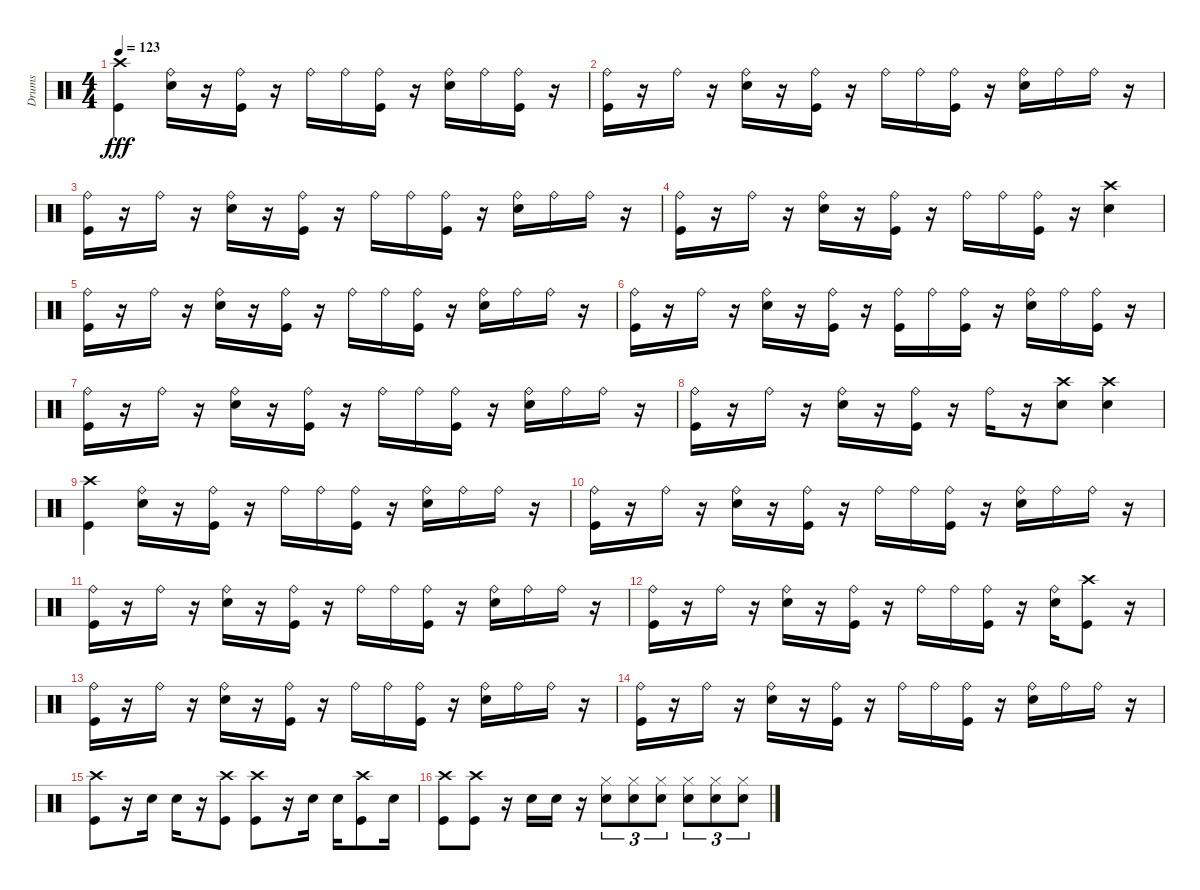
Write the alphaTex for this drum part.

\track ("Drums" "Drums") {instrument percussion}
\staff {score}
\articulation defaults
\ts (4 4)
\tempo 123
\clef neutral
\ks c
("Crash high (hit)" "Kick (hit)").4{dy fff} ("Snare (hit) 2" "Ride (bell)").16 r.16 ("Kick (hit)" "Ride (bell)").16 r.16 "Ride (bell)".16 "Ride (bell)".16 ("Kick (hit)" "Ride (bell)").16 r.16 ("Snare (hit) 2" "Ride (bell)").16 "Ride (bell)".16 ("Kick (hit)" "Ride (bell)").16 r.16 |
("Ride (bell)" "Kick (hit)").16 r.16 "Ride (bell)".16 r.16 ("Ride (bell)" "Snare (hit) 2").16 r.16 ("Ride (bell)" "Kick (hit)").16 r.16 "Ride (bell)".16 "Ride (bell)".16 ("Ride (bell)" "Kick (hit)").16 r.16 ("Ride (bell)" "Snare (hit) 2").16 "Ride (bell)".16 "Ride (bell)".16 r.16 |
("Ride (bell)" "Kick (hit)").16 r.16 "Ride (bell)".16 r.16 ("Ride (bell)" "Snare (hit) 2").16 r.16 ("Ride (bell)" "Kick (hit)").16 r.16 "Ride (bell)".16 "Ride (bell)".16 ("Ride (bell)" "Kick (hit)").16 r.16 ("Ride (bell)" "Snare (hit) 2").16 "Ride (bell)".16 "Ride (bell)".16 r.16 |
("Kick (hit)" "Ride (bell)").16 r.16 "Ride (bell)".16 r.16 ("Snare (hit) 2" "Ride (bell)").16 r.16 ("Kick (hit)" "Ride (bell)").16 r.16 "Ride (bell)".16 "Ride (bell)".16 ("Kick (hit)" "Ride (bell)").16 r.16 ("Snare (hit) 2" "Crash high (hit)").4 |
("Ride (bell)" "Kick (hit)").16 r.16 "Ride (bell)".16 r.16 ("Ride (bell)" "Snare (hit) 2").16 r.16 ("Ride (bell)" "Kick (hit)").16 r.16 "Ride (bell)".16 "Ride (bell)".16 ("Ride (bell)" "Kick (hit)").16 r.16 ("Ride (bell)" "Snare (hit) 2").16 "Ride (bell)".16 "Ride (bell)".16 r.16 |
("Kick (hit)" "Ride (bell)").16 r.16 "Ride (bell)".16 r.16 ("Snare (hit) 2" "Ride (bell)").16 r.16 ("Kick (hit)" "Ride (bell)").16 r.16 ("Kick (hit)" "Ride (bell)").16 "Ride (bell)".16 ("Kick (hit)" "Ride (bell)").16 r.16 ("Snare (hit) 2" "Ride (bell)").16 "Ride (bell)".16 ("Kick (hit)" "Ride (bell)").16 r.16 |
("Ride (bell)" "Kick (hit)").16 r.16 "Ride (bell)".16 r.16 ("Ride (bell)" "Snare (hit) 2").16 r.16 ("Ride (bell)" "Kick (hit)").16 r.16 "Ride (bell)".16 "Ride (bell)".16 ("Ride (bell)" "Kick (hit)").16 r.16 ("Ride (bell)" "Snare (hit) 2").16 "Ride (bell)".16 "Ride (bell)".16 r.16 |
("Kick (hit)" "Ride (bell)").16 r.16 "Ride (bell)".16 r.16 ("Snare (hit) 2" "Ride (bell)").16 r.16 ("Kick (hit)" "Ride (bell)").16 r.16 "Ride (bell)".16 r.16 ("Snare (hit) 2" "Crash high (hit)").8 ("Snare (hit) 2" "Crash high (hit)").4 |
("Crash high (hit)" "Kick (hit)").4 ("Ride (bell)" "Snare (hit) 2").16 r.16 ("Ride (bell)" "Kick (hit)").16 r.16 "Ride (bell)".16 "Ride (bell)".16 ("Ride (bell)" "Kick (hit)").16 r.16 ("Ride (bell)" "Snare (hit) 2").16 "Ride (bell)".16 "Ride (bell)".16 r.16 |
("Kick (hit)" "Ride (bell)").16 r.16 "Ride (bell)".16 r.16 ("Snare (hit) 2" "Ride (bell)").16 r.16 ("Kick (hit)" "Ride (bell)").16 r.16 "Ride (bell)".16 "Ride (bell)".16 ("Kick (hit)" "Ride (bell)").16 r.16 ("Snare (hit) 2" "Ride (bell)").16 "Ride (bell)".16 "Ride (bell)".16 r.16 |
("Kick (hit)" "Ride (bell)").16 r.16 "Ride (bell)".16 r.16 ("Snare (hit) 2" "Ride (bell)").16 r.16 ("Kick (hit)" "Ride (bell)").16 r.16 "Ride (bell)".16 "Ride (bell)".16 ("Kick (hit)" "Ride (bell)").16 r.16 ("Snare (hit) 2" "Ride (bell)").16 "Ride (bell)".16 "Ride (bell)".16 r.16 |
("Ride (bell)" "Kick (hit)").16 r.16 "Ride (bell)".16 r.16 ("Ride (bell)" "Snare (hit) 2").16 r.16 ("Ride (bell)" "Kick (hit)").16 r.16 "Ride (bell)".16 "Ride (bell)".16 ("Ride (bell)" "Kick (hit)").16 r.16 ("Ride (bell)" "Snare (hit) 2").16 ("Kick (hit)" "Crash high (hit)").8 r.16 |
("Kick (hit)" "Ride (bell)").16 r.16 "Ride (bell)".16 r.16 ("Snare (hit) 2" "Ride (bell)").16 r.16 ("Kick (hit)" "Ride (bell)").16 r.16 "Ride (bell)".16 "Ride (bell)".16 ("Kick (hit)" "Ride (bell)").16 r.16 ("Snare (hit) 2" "Ride (bell)").16 "Ride (bell)".16 "Ride (bell)".16 r.16 |
("Kick (hit)" "Ride (bell)").16 r.16 "Ride (bell)".16 r.16 ("Snare (hit) 2" "Ride (bell)").16 r.16 ("Kick (hit)" "Ride (bell)").16 r.16 "Ride (bell)".16 "Ride (bell)".16 ("Kick (hit)" "Ride (bell)").16 r.16 ("Snare (hit) 2" "Ride (bell)").16 "Ride (bell)".16 "Ride (bell)".16 r.16 |
("Kick (hit)" "Crash high (hit)").8 r.16 "Snare (hit) 2".16 "Snare (hit) 2".16 r.16 ("Kick (hit)" "Crash high (hit)").8 ("Kick (hit)" "Crash high (hit)").8 r.16 "Snare (hit) 2".16 "Snare (hit) 2".16 ("Kick (hit)" "Crash high (hit)").8 "Snare (hit) 2".16 |
("Kick (hit)" "Crash high (hit)").8 ("Kick (hit)" "Crash high (hit)").8 r.16 "Snare (hit) 2".16 "Snare (hit) 2".16 r.16 ("Snare (hit) 2" "Hi-Hat (closed)").8{tu (3 2)} ("Snare (hit) 2" "Hi-Hat (closed)").8{tu (3 2)} ("Snare (hit) 2" "Hi-Hat (closed)").8{tu (3 2)} ("Snare (hit) 2" "Hi-Hat (closed)").8{tu (3 2)} ("Snare (hit) 2" "Hi-Hat (closed)").8{tu (3 2)} ("Snare (hit) 2" "Hi-Hat (closed)").8{tu (3 2)}
